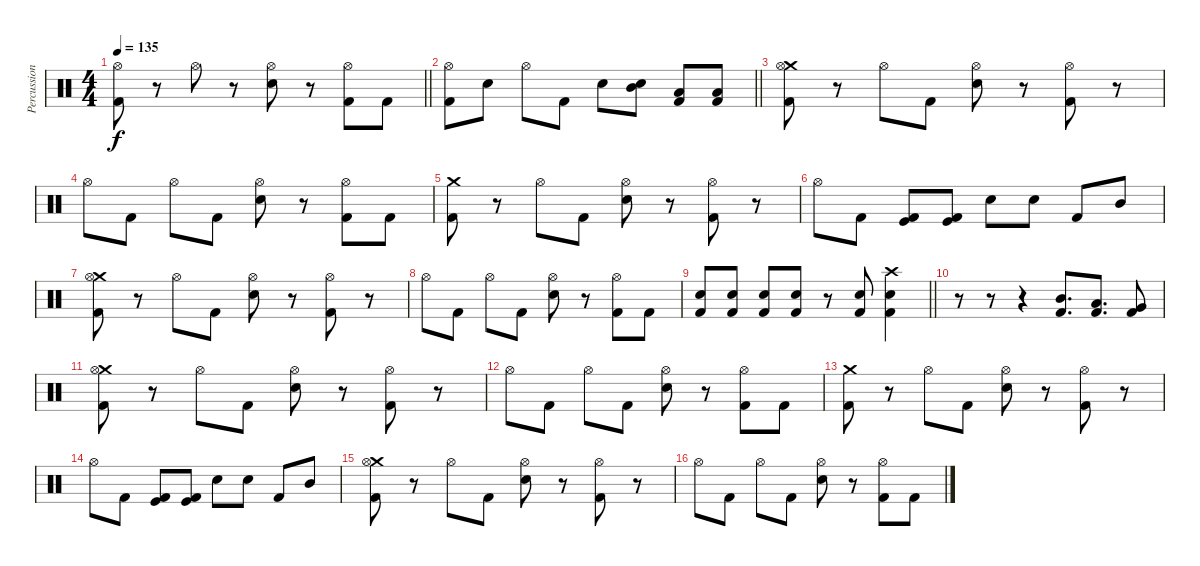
\track ("Percussion" "Percussion") {instrument percussion}
\staff {score}
\articulation defaults
\ts (4 4)
\tempo 135
\clef neutral
\barLineRight lightlight
\ks c
("Hi-Hat (open)" "Kick (hit) 2").8{dy f} r.8 "Hi-Hat (open)".8 r.8 ("Hi-Hat (open)" "Electric Snare (hit)").8 r.8 ("Hi-Hat (open)" "Kick (hit) 2").8 "Kick (hit) 2".8 |
\barLineRight lightlight
("Hi-Hat (open)" "Kick (hit) 2").8 "Electric Snare (hit)".8 "Hi-Hat (open)".8 "Kick (hit) 2".8 "Electric Snare (hit)".8 ("Mid Tom (hit)" "Electric Snare (hit)").8 ("Low Tom (hit)" "Kick (hit) 2").8 ("Low Tom (hit)" "Kick (hit) 2").8 |
("Crash medium (hit)" "Hi-Hat (open)" "Kick (hit) 2").8 r.8 "Hi-Hat (open)".8 "Kick (hit) 2".8 ("Hi-Hat (open)" "Electric Snare (hit)").8 r.8 ("Hi-Hat (open)" "Kick (hit) 2").8 r.8 |
"Hi-Hat (open)".8 "Kick (hit) 2".8 "Hi-Hat (open)".8 "Kick (hit) 2".8 ("Hi-Hat (open)" "Electric Snare (hit)").8 r.8 ("Hi-Hat (open)" "Kick (hit) 2").8 "Kick (hit) 2".8 |
("Crash medium (hit)" "Kick (hit) 2").8 r.8 "Hi-Hat (open)".8 "Kick (hit) 2".8 ("Hi-Hat (open)" "Electric Snare (hit)").8 r.8 ("Hi-Hat (open)" "Kick (hit) 2").8 r.8 |
"Hi-Hat (open)".8 "Kick (hit) 2".8 ("Kick (hit)" "Kick (hit) 2").8 ("Kick (hit)" "Kick (hit) 2").8 "Electric Snare (hit)".8 "Electric Snare (hit)".8 "Kick (hit) 2".8 "Mid Tom (hit)".8 |
("Crash medium (hit)" "Hi-Hat (open)" "Kick (hit) 2").8 r.8 "Hi-Hat (open)".8 "Kick (hit) 2".8 ("Hi-Hat (open)" "Electric Snare (hit)").8 r.8 ("Hi-Hat (open)" "Kick (hit) 2").8 r.8 |
"Hi-Hat (open)".8 "Kick (hit) 2".8 "Hi-Hat (open)".8 "Kick (hit) 2".8 ("Hi-Hat (open)" "Electric Snare (hit)").8 r.8 ("Hi-Hat (open)" "Kick (hit) 2").8 "Kick (hit) 2".8 |
\barLineRight lightlight
("Electric Snare (hit)" "Kick (hit) 2").8 ("Electric Snare (hit)" "Kick (hit) 2").8 ("Electric Snare (hit)" "Kick (hit) 2").8 ("Electric Snare (hit)" "Kick (hit) 2").8 r.8 ("Electric Snare (hit)" "Kick (hit) 2").8 ("Crash high (hit)" "Electric Snare (hit)" "Kick (hit) 2").4 |
r.8 r.8 r.4 ("Kick (hit) 2" "Mid Tom (hit)").8{d} ("Kick (hit) 2" "Low Tom (hit)").8{d} ("Kick (hit) 2" "Very Low Tom (hit)").8 |
("Crash medium (hit)" "Hi-Hat (open)" "Kick (hit) 2").8 r.8 "Hi-Hat (open)".8 "Kick (hit) 2".8 ("Hi-Hat (open)" "Electric Snare (hit)").8 r.8 ("Hi-Hat (open)" "Kick (hit) 2").8 r.8 |
"Hi-Hat (open)".8 "Kick (hit) 2".8 "Hi-Hat (open)".8 "Kick (hit) 2".8 ("Hi-Hat (open)" "Electric Snare (hit)").8 r.8 ("Hi-Hat (open)" "Kick (hit) 2").8 "Kick (hit) 2".8 |
("Crash medium (hit)" "Kick (hit) 2").8 r.8 "Hi-Hat (open)".8 "Kick (hit) 2".8 ("Hi-Hat (open)" "Electric Snare (hit)").8 r.8 ("Hi-Hat (open)" "Kick (hit) 2").8 r.8 |
"Hi-Hat (open)".8 "Kick (hit) 2".8 ("Kick (hit)" "Kick (hit) 2").8 ("Kick (hit)" "Kick (hit) 2").8 "Electric Snare (hit)".8 "Electric Snare (hit)".8 "Kick (hit) 2".8 "Mid Tom (hit)".8 |
("Crash medium (hit)" "Hi-Hat (open)" "Kick (hit) 2").8 r.8 "Hi-Hat (open)".8 "Kick (hit) 2".8 ("Hi-Hat (open)" "Electric Snare (hit)").8 r.8 ("Hi-Hat (open)" "Kick (hit) 2").8 r.8 |
"Hi-Hat (open)".8 "Kick (hit) 2".8 "Hi-Hat (open)".8 "Kick (hit) 2".8 ("Hi-Hat (open)" "Electric Snare (hit)").8 r.8 ("Hi-Hat (open)" "Kick (hit) 2").8 "Kick (hit) 2".8
